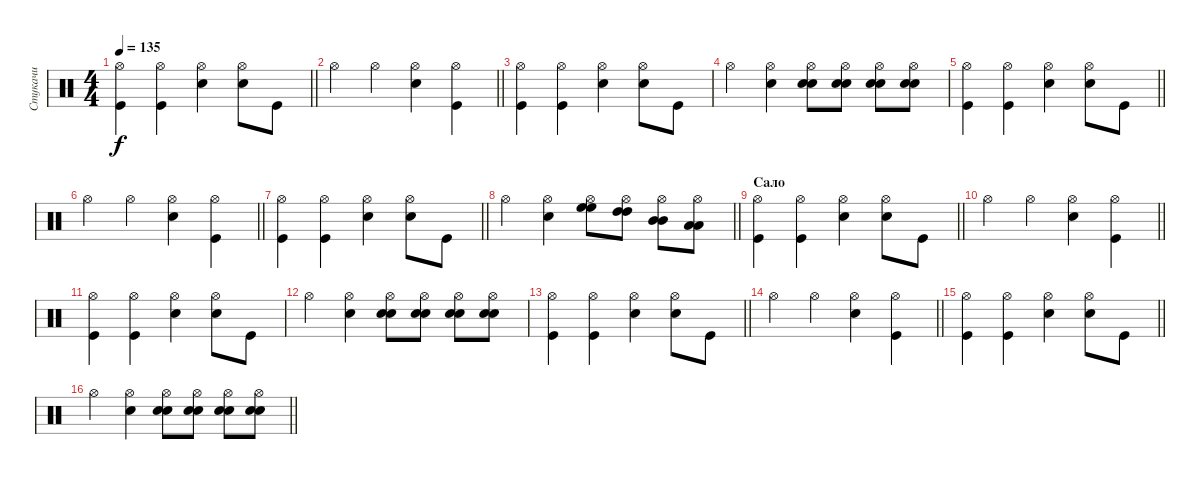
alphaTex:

\track ("Стукачи" "Стукачи") {instrument percussion}
\staff {score}
\articulation defaults
\ts (4 4)
\tempo 135
\clef neutral
\barLineRight lightlight
\ks c
("Hi-Hat (open)" "Kick (hit)").4{dy f} ("Hi-Hat (open)" "Kick (hit)").4 ("Hi-Hat (open)" "Snare (hit) 2").4 ("Hi-Hat (open)" "Snare (hit) 2").8 "Kick (hit)".8 |
\barLineRight lightlight "Hi-Hat (open)".4 "Hi-Hat (open)".4
("Hi-Hat (open)" "Snare (hit) 2").4 ("Hi-Hat (open)" "Kick (hit)").4 |
("Hi-Hat (open)" "Kick (hit)").4 ("Hi-Hat (open)" "Kick (hit)").4 ("Hi-Hat (open)" "Snare (hit) 2").4 ("Hi-Hat (open)" "Snare (hit) 2").8 "Kick (hit)".8 |
"Hi-Hat (open)".4 ("Hi-Hat (open)" "Snare (hit) 2").4 ("Hi-Hat (open)" "Snare (hit) 2" "Snare (hit) 2").8 ("Hi-Hat (open)" "Snare (hit) 2" "Snare (hit) 2").8 ("Hi-Hat (open)" "Snare (hit) 2" "Snare (hit) 2").8 ("Hi-Hat (open)" "Snare (hit) 2" "Snare (hit) 2").8 |
\barLineRight lightlight
("Hi-Hat (open)" "Kick (hit)").4 ("Hi-Hat (open)" "Kick (hit)").4 ("Hi-Hat (open)" "Snare (hit) 2").4 ("Hi-Hat (open)" "Snare (hit) 2").8 "Kick (hit)".8 |
\barLineRight lightlight "Hi-Hat (open)".4 "Hi-Hat (open)".4
("Hi-Hat (open)" "Snare (hit) 2").4 ("Hi-Hat (open)" "Kick (hit)").4 |
\barLineRight lightlight
("Hi-Hat (open)" "Kick (hit)").4 ("Hi-Hat (open)" "Kick (hit)").4 ("Hi-Hat (open)" "Snare (hit) 2").4 ("Hi-Hat (open)" "Snare (hit) 2").8 "Kick (hit)".8 |
\barLineRight lightlight "Hi-Hat (open)".4
("Hi-Hat (open)" "Snare (hit) 2").4 ("Hi-Hat (open)" "High Floor Tom (hit)" "High Floor Tom (hit)").8 ("Hi-Hat (open)" "High Tom (hit)" "High Tom (hit)").8 ("Hi-Hat (open)" "Mid Tom (hit)" "Mid Tom (hit)").8 ("Hi-Hat (open)" "Low Tom (hit)" "Low Tom (hit)").8 |
\section ("" "Сало")
\barLineRight lightlight
("Hi-Hat (open)" "Kick (hit)").4{volume 15} ("Hi-Hat (open)" "Kick (hit)").4 ("Hi-Hat (open)" "Snare (hit) 2").4 ("Hi-Hat (open)" "Snare (hit) 2").8 "Kick (hit)".8 |
\barLineRight lightlight "Hi-Hat (open)".4 "Hi-Hat (open)".4
("Hi-Hat (open)" "Snare (hit) 2").4 ("Hi-Hat (open)" "Kick (hit)").4 |
("Hi-Hat (open)" "Kick (hit)").4 ("Hi-Hat (open)" "Kick (hit)").4 ("Hi-Hat (open)" "Snare (hit) 2").4 ("Hi-Hat (open)" "Snare (hit) 2").8 "Kick (hit)".8 |
"Hi-Hat (open)".4 ("Hi-Hat (open)" "Snare (hit) 2").4 ("Hi-Hat (open)" "Snare (hit) 2" "Snare (hit) 2").8 ("Hi-Hat (open)" "Snare (hit) 2" "Snare (hit) 2").8 ("Hi-Hat (open)" "Snare (hit) 2" "Snare (hit) 2").8 ("Hi-Hat (open)" "Snare (hit) 2" "Snare (hit) 2").8 |
\barLineRight lightlight
("Hi-Hat (open)" "Kick (hit)").4 ("Hi-Hat (open)" "Kick (hit)").4 ("Hi-Hat (open)" "Snare (hit) 2").4 ("Hi-Hat (open)" "Snare (hit) 2").8 "Kick (hit)".8 |
\barLineRight lightlight "Hi-Hat (open)".4 "Hi-Hat (open)".4
("Hi-Hat (open)" "Snare (hit) 2").4 ("Hi-Hat (open)" "Kick (hit)").4 |
\barLineRight lightlight
("Hi-Hat (open)" "Kick (hit)").4 ("Hi-Hat (open)" "Kick (hit)").4 ("Hi-Hat (open)" "Snare (hit) 2").4 ("Hi-Hat (open)" "Snare (hit) 2").8 "Kick (hit)".8 |
\barLineRight lightlight "Hi-Hat (open)".4
("Hi-Hat (open)" "Snare (hit) 2").4 ("Hi-Hat (open)" "Snare (hit) 2" "Snare (hit) 2").8 ("Hi-Hat (open)" "Snare (hit) 2" "Snare (hit) 2").8 ("Hi-Hat (open)" "Snare (hit) 2" "Snare (hit) 2").8 ("Hi-Hat (open)" "Snare (hit) 2" "Snare (hit) 2").8
